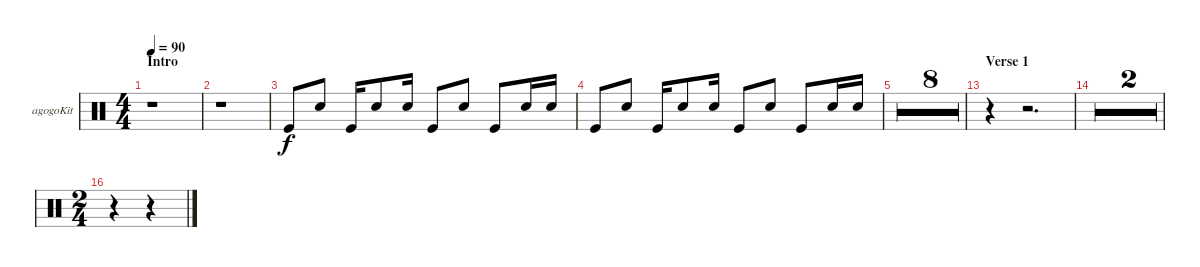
\bracketExtendMode groupsimilarinstruments
\firstSystemTrackNameOrientation horizontal
\otherSystemsTrackNameOrientation horizontal
\track ("Agogo" "agogoKit") {multiBarRest instrument percussion}
\staff {score}
\articulation defaults
\ts (4 4)
\beaming (8 2 2 2 2)
\section ("" "Intro")
\tempo 90
\clef neutral
\ks c
r.1{dy f} |
r.1 |
"Kick (hit)".8 "Snare (hit) 2".8 "Kick (hit)".16 "Snare (hit) 2".8 "Snare (hit) 2".16 "Kick (hit)".8 "Snare (hit) 2".8 "Kick (hit)".8 "Snare (hit) 2".16 "Snare (hit) 2".16 |
"Kick (hit)".8 "Snare (hit) 2".8 "Kick (hit)".16 "Snare (hit) 2".8 "Snare (hit) 2".16 "Kick (hit)".8 "Snare (hit) 2".8 "Kick (hit)".8 "Snare (hit) 2".16 "Snare (hit) 2".16 |
r.4 r.2{d} |
r.4 r.2{d} |
r.4 r.2{d} |
r.4 r.2{d} |
r.4 r.2{d} |
r.4 r.2{d} |
r.4 r.2{d} |
r.4 r.2{d} |
\section ("" "Verse 1")
r.4 r.2{d} |
r.4 r.2{d} |
r.4 r.2{d} |
\ts (2 4)
\beaming (8 2 2)
r.4 r.4
